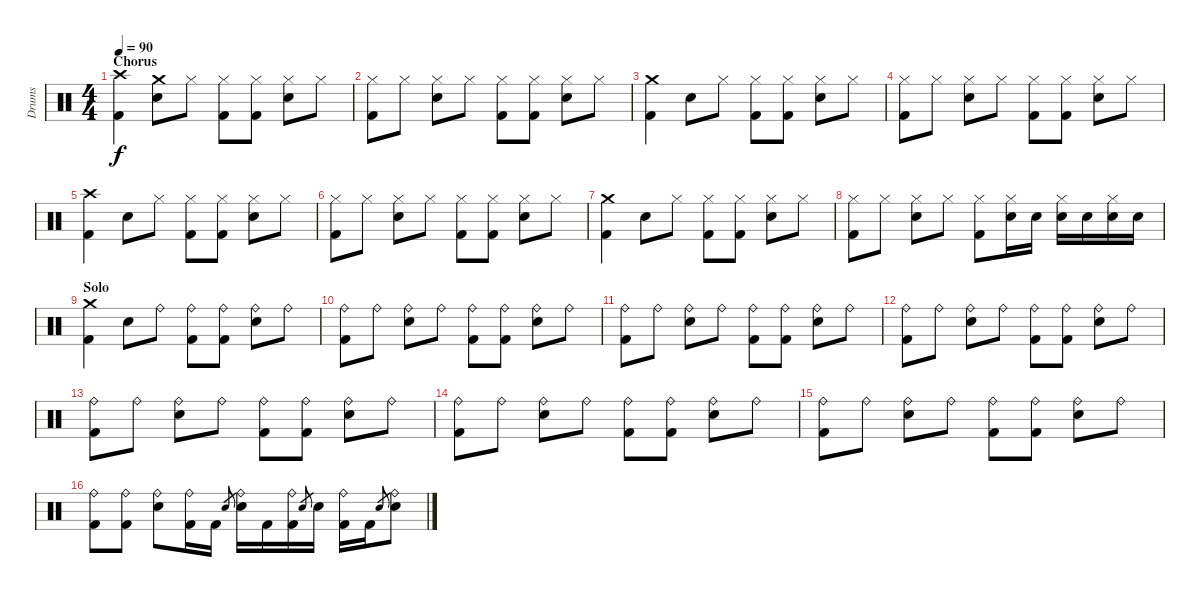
\track ("Drums" "Drums") {instrument percussion}
\staff {score}
\articulation defaults
\ts (4 4)
\section ("" "Chorus")
\tempo 90
\clef neutral
\ks c
("Kick (hit) 2" "Crash high (hit)").4{dy f} ("Snare (hit) 2" "Crash medium (hit)").8 "Hi-Hat (closed)".8 ("Kick (hit) 2" "Hi-Hat (closed)").8 ("Kick (hit) 2" "Hi-Hat (closed)").8 ("Snare (hit) 2" "Hi-Hat (closed)").8 "Hi-Hat (closed)".8 |
("Kick (hit) 2" "Hi-Hat (closed)").8 "Hi-Hat (closed)".8 ("Snare (hit) 2" "Hi-Hat (closed)").8 "Hi-Hat (closed)".8 ("Kick (hit) 2" "Hi-Hat (closed)").8 ("Kick (hit) 2" "Hi-Hat (closed)").8 ("Snare (hit) 2" "Hi-Hat (closed)").8 "Hi-Hat (closed)".8 |
("Kick (hit) 2" "Crash medium (hit)").4 "Snare (hit) 2".8 "Hi-Hat (closed)".8 ("Kick (hit) 2" "Hi-Hat (closed)").8 ("Kick (hit) 2" "Hi-Hat (closed)").8 ("Snare (hit) 2" "Hi-Hat (closed)").8 "Hi-Hat (closed)".8 |
("Kick (hit) 2" "Hi-Hat (closed)").8 "Hi-Hat (closed)".8 ("Snare (hit) 2" "Hi-Hat (closed)").8 "Hi-Hat (closed)".8 ("Kick (hit) 2" "Hi-Hat (closed)").8 ("Kick (hit) 2" "Hi-Hat (closed)").8 ("Snare (hit) 2" "Hi-Hat (closed)").8 "Hi-Hat (closed)".8 |
("Kick (hit) 2" "Crash high (hit)").4 "Snare (hit) 2".8 "Hi-Hat (closed)".8 ("Kick (hit) 2" "Hi-Hat (closed)").8 ("Kick (hit) 2" "Hi-Hat (closed)").8 ("Snare (hit) 2" "Hi-Hat (closed)").8 "Hi-Hat (closed)".8 |
("Kick (hit) 2" "Hi-Hat (closed)").8 "Hi-Hat (closed)".8 ("Snare (hit) 2" "Hi-Hat (closed)").8 "Hi-Hat (closed)".8 ("Kick (hit) 2" "Hi-Hat (closed)").8 ("Kick (hit) 2" "Hi-Hat (closed)").8 ("Snare (hit) 2" "Hi-Hat (closed)").8 "Hi-Hat (closed)".8 |
("Kick (hit) 2" "Crash medium (hit)").4 "Snare (hit) 2".8 "Hi-Hat (closed)".8 ("Kick (hit) 2" "Hi-Hat (closed)").8 ("Kick (hit) 2" "Hi-Hat (closed)").8 ("Snare (hit) 2" "Hi-Hat (closed)").8 "Hi-Hat (closed)".8 |
("Kick (hit) 2" "Hi-Hat (closed)").8 "Hi-Hat (closed)".8 ("Snare (hit) 2" "Hi-Hat (closed)").8 "Hi-Hat (closed)".8 ("Kick (hit) 2" "Hi-Hat (closed)").8 ("Snare (hit) 2" "Hi-Hat (closed)").16 "Snare (hit) 2".16 ("Snare (hit) 2" "Hi-Hat (closed)").16 "Snare (hit) 2".16 ("Snare (hit) 2" "Hi-Hat (closed)").16 "Snare (hit) 2".16 |
\section ("" "Solo")
("Kick (hit) 2" "Crash medium (hit)").4 "Snare (hit) 2".8 "Ride (bell)".8 ("Kick (hit) 2" "Ride (bell)").8 ("Kick (hit) 2" "Ride (bell)").8 ("Snare (hit) 2" "Ride (bell)").8 "Ride (bell)".8 |
("Kick (hit) 2" "Ride (bell)").8 "Ride (bell)".8 ("Snare (hit) 2" "Ride (bell)").8 "Ride (bell)".8 ("Kick (hit) 2" "Ride (bell)").8 ("Kick (hit) 2" "Ride (bell)").8 ("Snare (hit) 2" "Ride (bell)").8 "Ride (bell)".8 |
("Kick (hit) 2" "Ride (bell)").8 "Ride (bell)".8 ("Snare (hit) 2" "Ride (bell)").8 "Ride (bell)".8 ("Kick (hit) 2" "Ride (bell)").8 ("Kick (hit) 2" "Ride (bell)").8 ("Snare (hit) 2" "Ride (bell)").8 "Ride (bell)".8 |
("Kick (hit) 2" "Ride (bell)").8 "Ride (bell)".8 ("Snare (hit) 2" "Ride (bell)").8 "Ride (bell)".8 ("Kick (hit) 2" "Ride (bell)").8 ("Kick (hit) 2" "Ride (bell)").8 ("Snare (hit) 2" "Ride (bell)").8 "Ride (bell)".8 |
("Kick (hit) 2" "Ride (bell)").8 "Ride (bell)".8 ("Snare (hit) 2" "Ride (bell)").8 "Ride (bell)".8 ("Kick (hit) 2" "Ride (bell)").8 ("Kick (hit) 2" "Ride (bell)").8 ("Snare (hit) 2" "Ride (bell)").8 "Ride (bell)".8 |
("Kick (hit) 2" "Ride (bell)").8 "Ride (bell)".8 ("Snare (hit) 2" "Ride (bell)").8 "Ride (bell)".8 ("Kick (hit) 2" "Ride (bell)").8 ("Kick (hit) 2" "Ride (bell)").8 ("Snare (hit) 2" "Ride (bell)").8 "Ride (bell)".8 |
("Kick (hit) 2" "Ride (bell)").8 "Ride (bell)".8 ("Snare (hit) 2" "Ride (bell)").8 "Ride (bell)".8 ("Kick (hit) 2" "Ride (bell)").8 ("Kick (hit) 2" "Ride (bell)").8 ("Snare (hit) 2" "Ride (bell)").8 "Ride (bell)".8 |
("Kick (hit) 2" "Ride (bell)").8 ("Kick (hit) 2" "Ride (bell)").8 ("Snare (hit) 2" "Ride (bell)").8 ("Kick (hit) 2" "Ride (bell)").16 "Kick (hit) 2".16 "Snare (hit) 2".8{gr} ("Snare (hit) 2" "Ride (bell)").16 "Kick (hit) 2".16 ("Kick (hit) 2" "Ride (bell)").16 "Snare (hit) 2".8{gr} "Snare (hit) 2".16 ("Kick (hit) 2" "Ride (bell)").16 "Kick (hit) 2".16 "Snare (hit) 2".8{gr} ("Snare (hit) 2" "Ride (bell)").8
